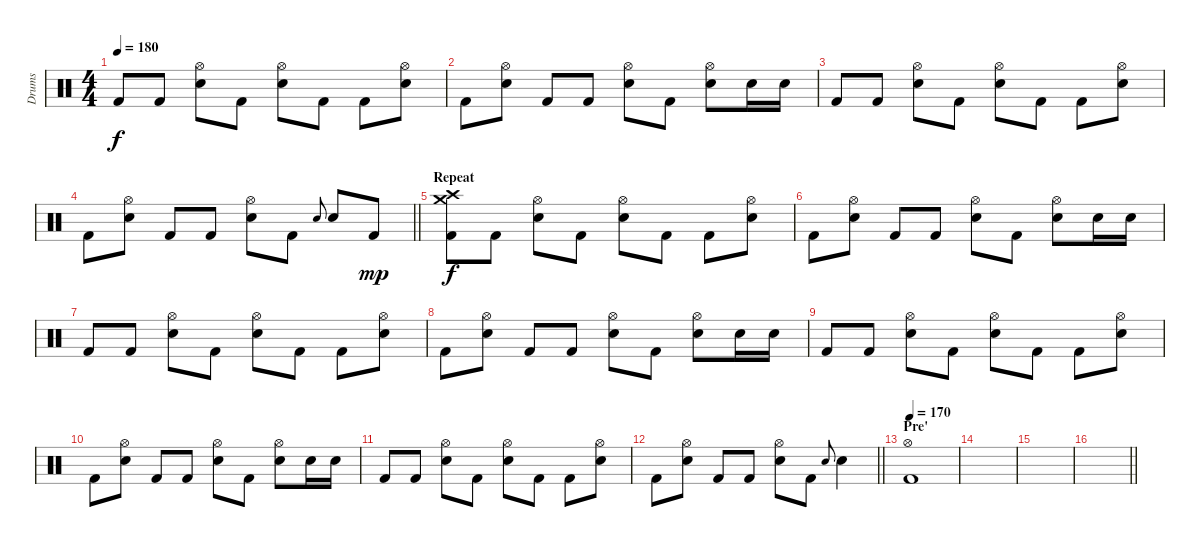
\track ("Drums" "Drums") {instrument percussion}
\staff {score}
\articulation defaults
\ts (4 4)
\tempo 180
\clef neutral
\ks c "Kick (hit) 2".8{dy f} "Kick (hit) 2".8
("Hi-Hat (open)" "Electric Snare (hit)").8 "Kick (hit) 2".8 ("Hi-Hat (open)" "Electric Snare (hit)").8 "Kick (hit) 2".8 "Kick (hit) 2".8 ("Hi-Hat (open)" "Electric Snare (hit)").8 |
"Kick (hit) 2".8 ("Hi-Hat (open)" "Electric Snare (hit)").8 "Kick (hit) 2".8 "Kick (hit) 2".8 ("Hi-Hat (open)" "Electric Snare (hit)").8 "Kick (hit) 2".8 ("Hi-Hat (open)" "Electric Snare (hit)").8 "Electric Snare (hit)".16 "Electric Snare (hit)".16 |
"Kick (hit) 2".8 "Kick (hit) 2".8 ("Hi-Hat (open)" "Electric Snare (hit)").8 "Kick (hit) 2".8 ("Hi-Hat (open)" "Electric Snare (hit)").8 "Kick (hit) 2".8 "Kick (hit) 2".8 ("Hi-Hat (open)" "Electric Snare (hit)").8 |
\barLineRight lightlight "Kick (hit) 2".8
("Hi-Hat (open)" "Electric Snare (hit)").8 "Kick (hit) 2".8 "Kick (hit) 2".8 ("Hi-Hat (open)" "Electric Snare (hit)").8 "Kick (hit) 2".8 "Electric Snare (hit)".8{gr onbeat} "Electric Snare (hit)".8 "Kick (hit) 2".8{dy mp} |
\section ("" "Repeat")
("Crash high (hit)" "Crash medium (hit)" "Kick (hit) 2").8{dy f} "Kick (hit) 2".8 ("Hi-Hat (open)" "Electric Snare (hit)").8 "Kick (hit) 2".8 ("Hi-Hat (open)" "Electric Snare (hit)").8 "Kick (hit) 2".8 "Kick (hit) 2".8 ("Hi-Hat (open)" "Electric Snare (hit)").8 |
"Kick (hit) 2".8 ("Hi-Hat (open)" "Electric Snare (hit)").8 "Kick (hit) 2".8 "Kick (hit) 2".8 ("Hi-Hat (open)" "Electric Snare (hit)").8 "Kick (hit) 2".8 ("Hi-Hat (open)" "Electric Snare (hit)").8 "Electric Snare (hit)".16 "Electric Snare (hit)".16 |
"Kick (hit) 2".8 "Kick (hit) 2".8 ("Hi-Hat (open)" "Electric Snare (hit)").8 "Kick (hit) 2".8 ("Hi-Hat (open)" "Electric Snare (hit)").8 "Kick (hit) 2".8 "Kick (hit) 2".8 ("Hi-Hat (open)" "Electric Snare (hit)").8 |
"Kick (hit) 2".8 ("Hi-Hat (open)" "Electric Snare (hit)").8 "Kick (hit) 2".8 "Kick (hit) 2".8 ("Hi-Hat (open)" "Electric Snare (hit)").8 "Kick (hit) 2".8 ("Hi-Hat (open)" "Electric Snare (hit)").8 "Electric Snare (hit)".16 "Electric Snare (hit)".16 |
"Kick (hit) 2".8 "Kick (hit) 2".8 ("Hi-Hat (open)" "Electric Snare (hit)").8 "Kick (hit) 2".8 ("Hi-Hat (open)" "Electric Snare (hit)").8 "Kick (hit) 2".8 "Kick (hit) 2".8 ("Hi-Hat (open)" "Electric Snare (hit)").8 |
"Kick (hit) 2".8 ("Hi-Hat (open)" "Electric Snare (hit)").8 "Kick (hit) 2".8 "Kick (hit) 2".8 ("Hi-Hat (open)" "Electric Snare (hit)").8 "Kick (hit) 2".8 ("Hi-Hat (open)" "Electric Snare (hit)").8 "Electric Snare (hit)".16 "Electric Snare (hit)".16 |
"Kick (hit) 2".8 "Kick (hit) 2".8 ("Hi-Hat (open)" "Electric Snare (hit)").8 "Kick (hit) 2".8 ("Hi-Hat (open)" "Electric Snare (hit)").8 "Kick (hit) 2".8 "Kick (hit) 2".8 ("Hi-Hat (open)" "Electric Snare (hit)").8 |
\barLineRight lightlight "Kick (hit) 2".8
("Hi-Hat (open)" "Electric Snare (hit)").8 "Kick (hit) 2".8 "Kick (hit) 2".8 ("Hi-Hat (open)" "Electric Snare (hit)").8 "Kick (hit) 2".8 "Electric Snare (hit)".8{gr onbeat} "Electric Snare (hit)".4 |
\section ("" "Pre'")
\tempo 170
("Hi-Hat (open)" "Kick (hit) 2").1 |
|
|
\barLineRight lightlight
